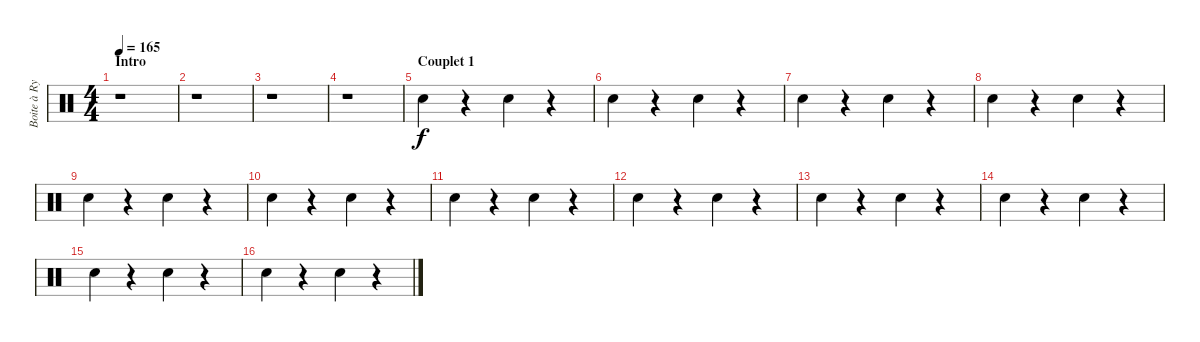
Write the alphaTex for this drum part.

\track ("Boite à Rythmes" "Boite à Ry") {instrument percussion}
\staff {score}
\articulation defaults
\ts (4 4)
\section ("" "Intro")
\tempo 165
\clef neutral
\ks c
r.1{dy f} |
r.1 |
r.1 |
r.1 |
\section ("" "Couplet 1")
"Snare (hit) 2".4 r.4 "Snare (hit) 2".4 r.4 |
"Snare (hit) 2".4 r.4 "Snare (hit) 2".4 r.4 |
"Snare (hit) 2".4 r.4 "Snare (hit) 2".4 r.4 |
"Snare (hit) 2".4 r.4 "Snare (hit) 2".4 r.4 |
"Snare (hit) 2".4 r.4 "Snare (hit) 2".4 r.4 |
"Snare (hit) 2".4 r.4 "Snare (hit) 2".4 r.4 |
"Snare (hit) 2".4 r.4 "Snare (hit) 2".4 r.4 |
"Snare (hit) 2".4 r.4 "Snare (hit) 2".4 r.4 |
"Snare (hit) 2".4 r.4 "Snare (hit) 2".4 r.4 |
"Snare (hit) 2".4 r.4 "Snare (hit) 2".4 r.4 |
"Snare (hit) 2".4 r.4 "Snare (hit) 2".4 r.4 |
"Snare (hit) 2".4 r.4 "Snare (hit) 2".4 r.4
